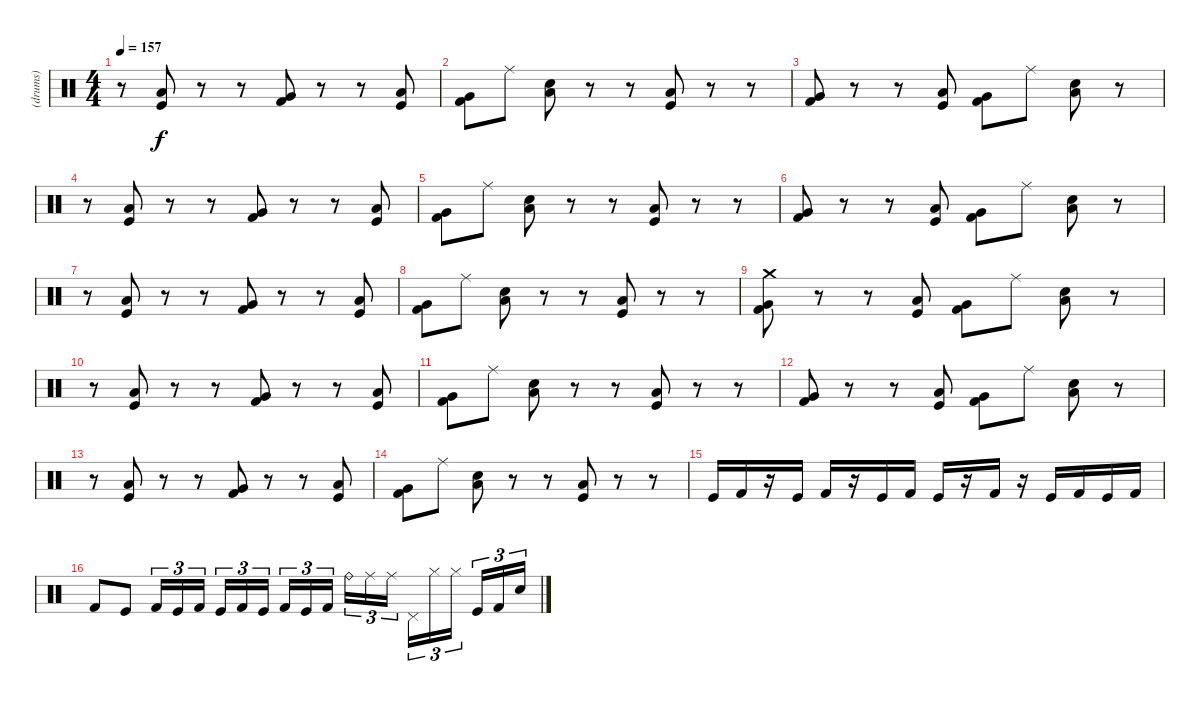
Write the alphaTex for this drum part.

\track ("(drums)" "(drums)") {instrument percussion}
\staff {score}
\articulation defaults
\ts (4 4)
\tempo 157
\clef neutral
\ks c
r.8{dy f} ("Kick (hit)" "Low Tom (hit)").8 r.8 r.8 ("Kick (hit) 2" "Very Low Tom (hit)").8 r.8 r.8 ("Kick (hit)" "Low Tom (hit)").8 |
("Kick (hit) 2" "Very Low Tom (hit)").8 "Ride (middle)".8 ("Snare (hit) 2" "Low Floor Tom (hit)").8 r.8 r.8 ("Kick (hit)" "Low Tom (hit)").8 r.8 r.8 |
("Kick (hit) 2" "Very Low Tom (hit)").8 r.8 r.8 ("Kick (hit)" "Low Tom (hit)").8 ("Kick (hit) 2" "Very Low Tom (hit)").8 "Ride (middle)".8 ("Snare (hit) 2" "Low Floor Tom (hit)").8 r.8 |
r.8 ("Kick (hit)" "Low Tom (hit)").8 r.8 r.8 ("Kick (hit) 2" "Very Low Tom (hit)").8 r.8 r.8 ("Kick (hit)" "Low Tom (hit)").8 |
("Kick (hit) 2" "Very Low Tom (hit)").8 "Ride (middle)".8 ("Snare (hit) 2" "Low Floor Tom (hit)").8 r.8 r.8 ("Kick (hit)" "Low Tom (hit)").8 r.8 r.8 |
("Kick (hit) 2" "Very Low Tom (hit)").8 r.8 r.8 ("Kick (hit)" "Low Tom (hit)").8 ("Kick (hit) 2" "Very Low Tom (hit)").8 "Ride (middle)".8 ("Snare (hit) 2" "Low Floor Tom (hit)").8 r.8 |
r.8 ("Kick (hit)" "Low Tom (hit)").8 r.8 r.8 ("Kick (hit) 2" "Very Low Tom (hit)").8 r.8 r.8 ("Kick (hit)" "Low Tom (hit)").8 |
("Kick (hit) 2" "Very Low Tom (hit)").8 "Ride (middle)".8 ("Snare (hit) 2" "Low Floor Tom (hit)").8 r.8 r.8 ("Kick (hit)" "Low Tom (hit)").8 r.8 r.8 |
("Kick (hit) 2" "Very Low Tom (hit)" "Crash medium (hit)").8 r.8 r.8 ("Kick (hit)" "Low Tom (hit)").8 ("Kick (hit) 2" "Very Low Tom (hit)").8 "Ride (middle)".8 ("Snare (hit) 2" "Low Floor Tom (hit)").8 r.8 |
r.8 ("Kick (hit)" "Low Tom (hit)").8 r.8 r.8 ("Kick (hit) 2" "Very Low Tom (hit)").8 r.8 r.8 ("Kick (hit)" "Low Tom (hit)").8 |
("Kick (hit) 2" "Very Low Tom (hit)").8 "Ride (middle)".8 ("Snare (hit) 2" "Low Floor Tom (hit)").8 r.8 r.8 ("Kick (hit)" "Low Tom (hit)").8 r.8 r.8 |
("Kick (hit) 2" "Very Low Tom (hit)").8 r.8 r.8 ("Kick (hit)" "Low Tom (hit)").8 ("Kick (hit) 2" "Very Low Tom (hit)").8 "Ride (middle)".8 ("Snare (hit) 2" "Low Floor Tom (hit)").8 r.8 |
r.8 ("Kick (hit)" "Low Tom (hit)").8 r.8 r.8 ("Kick (hit) 2" "Very Low Tom (hit)").8 r.8 r.8 ("Kick (hit)" "Low Tom (hit)").8 |
("Kick (hit) 2" "Very Low Tom (hit)").8 "Ride (middle)".8 ("Snare (hit) 2" "Low Floor Tom (hit)").8 r.8 r.8 ("Kick (hit)" "Low Tom (hit)").8 r.8 r.8 |
"Kick (hit)".16 "Kick (hit) 2".16 r.16 "Kick (hit)".16 "Kick (hit) 2".16 r.16 "Kick (hit)".16 "Kick (hit) 2".16 "Kick (hit)".16 r.16 "Kick (hit) 2".16 r.16 "Kick (hit)".16 "Kick (hit) 2".16 "Kick (hit)".16 "Kick (hit) 2".16 |
"Kick (hit) 2".8 "Kick (hit)".8 "Kick (hit) 2".16{tu (3 2)} "Kick (hit)".16{tu (3 2)} "Kick (hit) 2".16{tu (3 2)} "Kick (hit)".16{tu (3 2)} "Kick (hit) 2".16{tu (3 2)} "Kick (hit)".16{tu (3 2)} "Kick (hit) 2".16{tu (3 2)} "Kick (hit)".16{tu (3 2)} "Kick (hit) 2".16{tu (3 2)} "Ride (bell)".16{tu (3 2)} "Ride (middle)".16{tu (3 2)} "Ride (middle)".16{tu (3 2)} "Pedal Hi-Hat (hit)".16{tu (3 2)} "Hi-Hat (closed)".16{tu (3 2)} "Hi-Hat (closed)".16{tu (3 2)} "Kick (hit)".16{tu (3 2)} "Kick (hit) 2".16{tu (3 2)} "Snare (hit) 2".16{tu (3 2)}
